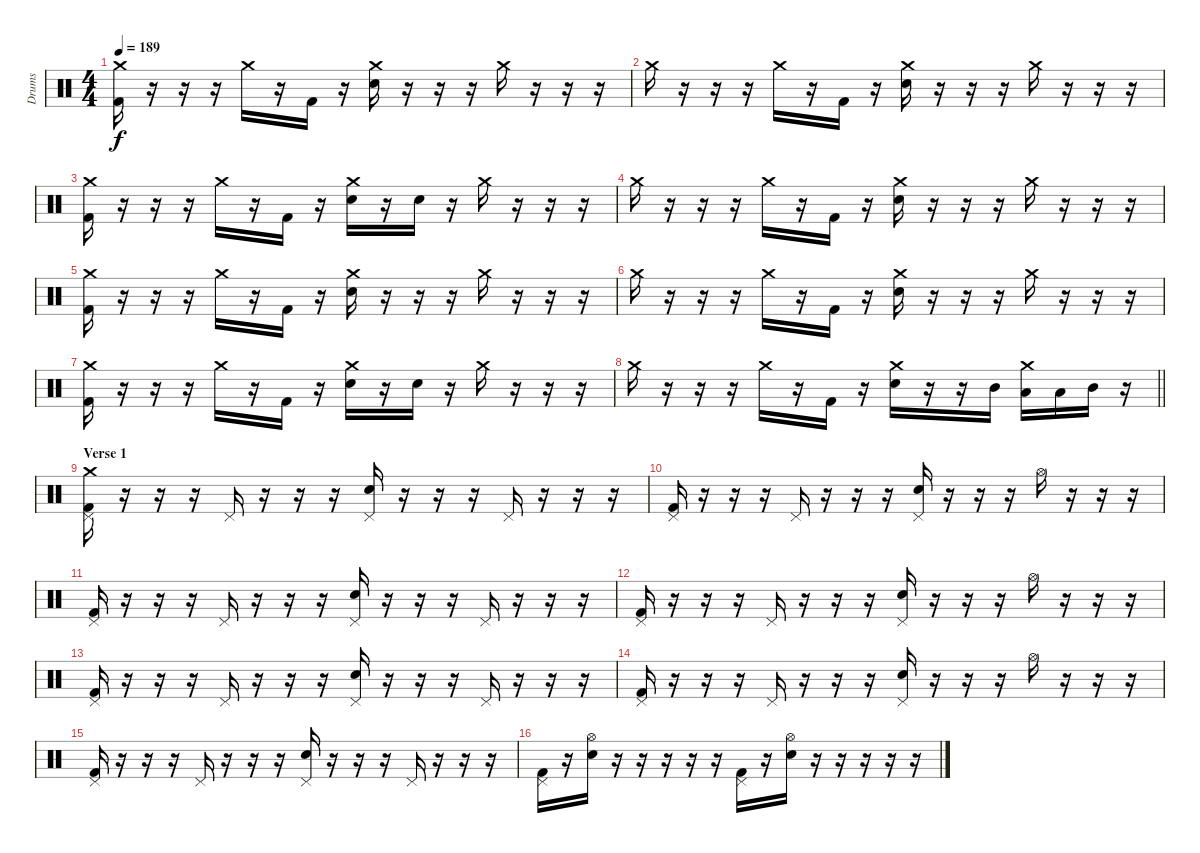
\track ("Drums" "Drums") {instrument percussion}
\staff {score}
\articulation defaults
\ts (4 4)
\tempo 189
\clef neutral
\ks c
("Crash medium (hit)" "Kick (hit) 2").16{dy f} r.16 r.16 r.16 "Crash medium (hit)".16 r.16 "Kick (hit) 2".16 r.16 ("Crash medium (hit)" "Electric Snare (hit)").16 r.16 r.16 r.16 "Crash medium (hit)".16 r.16 r.16 r.16 |
"Crash medium (hit)".16 r.16 r.16 r.16 "Crash medium (hit)".16 r.16 "Kick (hit) 2".16 r.16 ("Crash medium (hit)" "Electric Snare (hit)").16 r.16 r.16 r.16 "Crash medium (hit)".16 r.16 r.16 r.16 |
("Crash medium (hit)" "Kick (hit) 2").16 r.16 r.16 r.16 "Crash medium (hit)".16 r.16 "Kick (hit) 2".16 r.16 ("Crash medium (hit)" "Electric Snare (hit)").16 r.16 "Electric Snare (hit)".16 r.16 "Crash medium (hit)".16 r.16 r.16 r.16 |
"Crash medium (hit)".16 r.16 r.16 r.16 "Crash medium (hit)".16 r.16 "Kick (hit) 2".16 r.16 ("Crash medium (hit)" "Electric Snare (hit)").16 r.16 r.16 r.16 "Crash medium (hit)".16 r.16 r.16 r.16 |
("Crash medium (hit)" "Kick (hit) 2").16 r.16 r.16 r.16 "Crash medium (hit)".16 r.16 "Kick (hit) 2".16 r.16 ("Crash medium (hit)" "Electric Snare (hit)").16 r.16 r.16 r.16 "Crash medium (hit)".16 r.16 r.16 r.16 |
"Crash medium (hit)".16 r.16 r.16 r.16 "Crash medium (hit)".16 r.16 "Kick (hit) 2".16 r.16 ("Crash medium (hit)" "Electric Snare (hit)").16 r.16 r.16 r.16 "Crash medium (hit)".16 r.16 r.16 r.16 |
("Crash medium (hit)" "Kick (hit) 2").16 r.16 r.16 r.16 "Crash medium (hit)".16 r.16 "Kick (hit) 2".16 r.16 ("Crash medium (hit)" "Electric Snare (hit)").16 r.16 "Electric Snare (hit)".16 r.16 "Crash medium (hit)".16 r.16 r.16 r.16 |
\barLineRight lightlight "Crash medium (hit)".16
r.16 r.16 r.16 "Crash medium (hit)".16 r.16 "Kick (hit) 2".16 r.16 ("Crash medium (hit)" "Electric Snare (hit)").16 r.16 r.16 "Mid Tom (hit)".16 ("Crash medium (hit)" "Low Tom (hit)").16 "Low Floor Tom (hit)".16 "Mid Tom (hit)".16 r.16 |
\section ("" "Verse 1")
("Pedal Hi-Hat (hit)" "Kick (hit) 2" "Crash medium (hit)").16 r.16 r.16 r.16 "Pedal Hi-Hat (hit)".16 r.16 r.16 r.16 ("Pedal Hi-Hat (hit)" "Snare (hit) 2").16 r.16 r.16 r.16 "Pedal Hi-Hat (hit)".16 r.16 r.16 r.16 |
("Pedal Hi-Hat (hit)" "Kick (hit) 2").16 r.16 r.16 r.16 "Pedal Hi-Hat (hit)".16 r.16 r.16 r.16 ("Pedal Hi-Hat (hit)" "Snare (hit) 2").16 r.16 r.16 r.16 "Hi-Hat (open)".16 r.16 r.16 r.16 |
("Pedal Hi-Hat (hit)" "Kick (hit) 2").16 r.16 r.16 r.16 "Pedal Hi-Hat (hit)".16 r.16 r.16 r.16 ("Pedal Hi-Hat (hit)" "Snare (hit) 2").16 r.16 r.16 r.16 "Pedal Hi-Hat (hit)".16 r.16 r.16 r.16 |
("Pedal Hi-Hat (hit)" "Kick (hit) 2").16 r.16 r.16 r.16 "Pedal Hi-Hat (hit)".16 r.16 r.16 r.16 ("Pedal Hi-Hat (hit)" "Snare (hit) 2").16 r.16 r.16 r.16 "Hi-Hat (open)".16 r.16 r.16 r.16 |
("Pedal Hi-Hat (hit)" "Kick (hit) 2").16 r.16 r.16 r.16 "Pedal Hi-Hat (hit)".16 r.16 r.16 r.16 ("Pedal Hi-Hat (hit)" "Snare (hit) 2").16 r.16 r.16 r.16 "Pedal Hi-Hat (hit)".16 r.16 r.16 r.16 |
("Pedal Hi-Hat (hit)" "Kick (hit) 2").16 r.16 r.16 r.16 "Pedal Hi-Hat (hit)".16 r.16 r.16 r.16 ("Pedal Hi-Hat (hit)" "Snare (hit) 2").16 r.16 r.16 r.16 "Hi-Hat (open)".16 r.16 r.16 r.16 |
("Pedal Hi-Hat (hit)" "Kick (hit) 2").16 r.16 r.16 r.16 "Pedal Hi-Hat (hit)".16 r.16 r.16 r.16 ("Pedal Hi-Hat (hit)" "Snare (hit) 2").16 r.16 r.16 r.16 "Pedal Hi-Hat (hit)".16 r.16 r.16 r.16 |
("Pedal Hi-Hat (hit)" "Kick (hit) 2").16 r.16 ("Hi-Hat (open)" "Snare (hit) 2").16 r.16 r.16 r.16 r.16 r.16 ("Pedal Hi-Hat (hit)" "Kick (hit) 2").16 r.16 ("Hi-Hat (open)" "Snare (hit) 2").16 r.16 r.16 r.16 r.16 r.16
